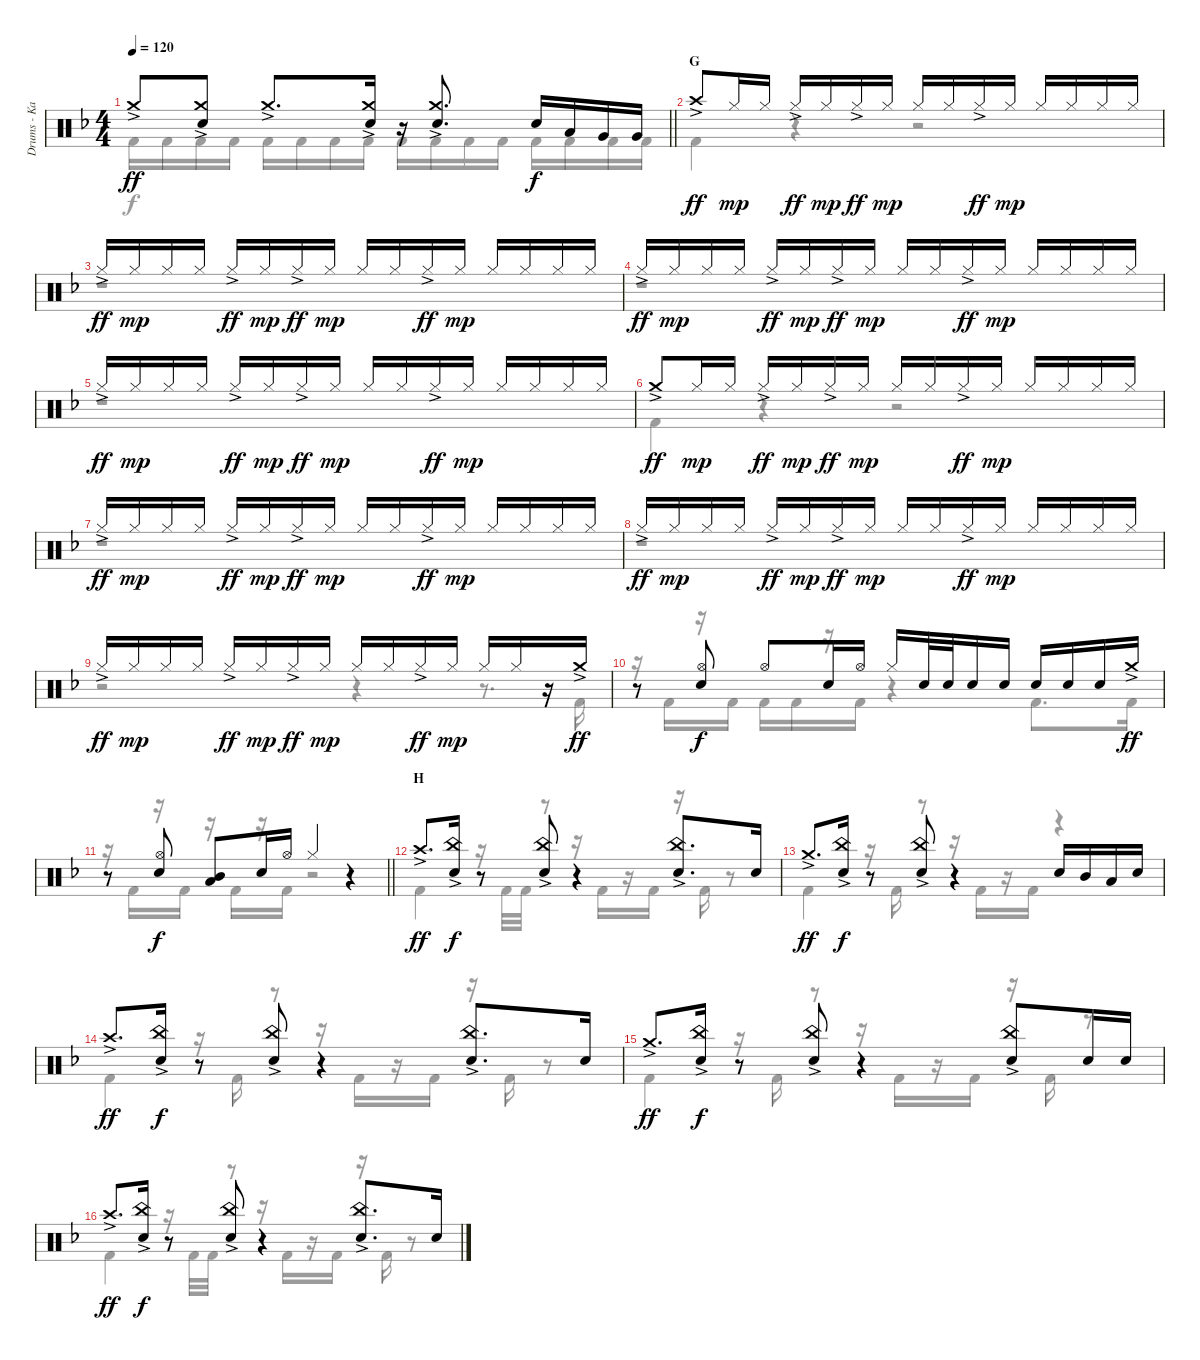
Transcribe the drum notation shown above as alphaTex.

\track ("Drums - Kai" "Drums - Ka") {instrument percussion}
\staff {score}
\articulation defaults
\voice
\ts (4 4)
\tempo 120
\clef neutral
\barLineRight lightlight
\ks f "Crash medium (hit)"{ac}.8{dy ff}
("Crash medium (hit)"{ac} "Electric Snare (hit)").8 "Crash medium (hit)"{ac}.8{d} ("Crash medium (hit)"{ac} "Electric Snare (hit)").16 r.16 ("Crash medium (hit)"{ac} "Electric Snare (hit)").8{d} "Electric Snare (hit)".16{dy f} "Low Tom (hit)".16 "Very Low Tom (hit)".16 "Very Low Tom (hit)".16 |
\section ("" "G")
"Crash high (hit)"{ac}.8{dy ff} "Hi-Hat (closed)".16{dy mp} "Hi-Hat (closed)".16 "Hi-Hat (closed)"{ac}.16{dy ff} "Hi-Hat (closed)".16{dy mp} "Hi-Hat (closed)"{ac}.16{dy ff} "Hi-Hat (closed)".16{dy mp} "Hi-Hat (closed)".16 "Hi-Hat (closed)".16 "Hi-Hat (closed)"{ac}.16{dy ff} "Hi-Hat (closed)".16{dy mp} "Hi-Hat (closed)".16 "Hi-Hat (closed)".16 "Hi-Hat (closed)".16 "Hi-Hat (closed)".16 |
"Hi-Hat (closed)"{ac}.16{dy ff} "Hi-Hat (closed)".16{dy mp} "Hi-Hat (closed)".16 "Hi-Hat (closed)".16 "Hi-Hat (closed)"{ac}.16{dy ff} "Hi-Hat (closed)".16{dy mp} "Hi-Hat (closed)"{ac}.16{dy ff} "Hi-Hat (closed)".16{dy mp} "Hi-Hat (closed)".16 "Hi-Hat (closed)".16 "Hi-Hat (closed)"{ac}.16{dy ff} "Hi-Hat (closed)".16{dy mp} "Hi-Hat (closed)".16 "Hi-Hat (closed)".16 "Hi-Hat (closed)".16 "Hi-Hat (closed)".16 |
"Hi-Hat (closed)"{ac}.16{dy ff} "Hi-Hat (closed)".16{dy mp} "Hi-Hat (closed)".16 "Hi-Hat (closed)".16 "Hi-Hat (closed)"{ac}.16{dy ff} "Hi-Hat (closed)".16{dy mp} "Hi-Hat (closed)"{ac}.16{dy ff} "Hi-Hat (closed)".16{dy mp} "Hi-Hat (closed)".16 "Hi-Hat (closed)".16 "Hi-Hat (closed)"{ac}.16{dy ff} "Hi-Hat (closed)".16{dy mp} "Hi-Hat (closed)".16 "Hi-Hat (closed)".16 "Hi-Hat (closed)".16 "Hi-Hat (closed)".16 |
"Hi-Hat (closed)"{ac}.16{dy ff} "Hi-Hat (closed)".16{dy mp} "Hi-Hat (closed)".16 "Hi-Hat (closed)".16 "Hi-Hat (closed)"{ac}.16{dy ff} "Hi-Hat (closed)".16{dy mp} "Hi-Hat (closed)"{ac}.16{dy ff} "Hi-Hat (closed)".16{dy mp} "Hi-Hat (closed)".16 "Hi-Hat (closed)".16 "Hi-Hat (closed)"{ac}.16{dy ff} "Hi-Hat (closed)".16{dy mp} "Hi-Hat (closed)".16 "Hi-Hat (closed)".16 "Hi-Hat (closed)".16 "Hi-Hat (closed)".16 |
"Crash medium (hit)"{ac}.8{dy ff} "Hi-Hat (closed)".16{dy mp} "Hi-Hat (closed)".16 "Hi-Hat (closed)"{ac}.16{dy ff} "Hi-Hat (closed)".16{dy mp} "Hi-Hat (closed)"{ac}.16{dy ff} "Hi-Hat (closed)".16{dy mp} "Hi-Hat (closed)".16 "Hi-Hat (closed)".16 "Hi-Hat (closed)"{ac}.16{dy ff} "Hi-Hat (closed)".16{dy mp} "Hi-Hat (closed)".16 "Hi-Hat (closed)".16 "Hi-Hat (closed)".16 "Hi-Hat (closed)".16 |
"Hi-Hat (closed)"{ac}.16{dy ff} "Hi-Hat (closed)".16{dy mp} "Hi-Hat (closed)".16 "Hi-Hat (closed)".16 "Hi-Hat (closed)"{ac}.16{dy ff} "Hi-Hat (closed)".16{dy mp} "Hi-Hat (closed)"{ac}.16{dy ff} "Hi-Hat (closed)".16{dy mp} "Hi-Hat (closed)".16 "Hi-Hat (closed)".16 "Hi-Hat (closed)"{ac}.16{dy ff} "Hi-Hat (closed)".16{dy mp} "Hi-Hat (closed)".16 "Hi-Hat (closed)".16 "Hi-Hat (closed)".16 "Hi-Hat (closed)".16 |
"Hi-Hat (closed)"{ac}.16{dy ff} "Hi-Hat (closed)".16{dy mp} "Hi-Hat (closed)".16 "Hi-Hat (closed)".16 "Hi-Hat (closed)"{ac}.16{dy ff} "Hi-Hat (closed)".16{dy mp} "Hi-Hat (closed)"{ac}.16{dy ff} "Hi-Hat (closed)".16{dy mp} "Hi-Hat (closed)".16 "Hi-Hat (closed)".16 "Hi-Hat (closed)"{ac}.16{dy ff} "Hi-Hat (closed)".16{dy mp} "Hi-Hat (closed)".16 "Hi-Hat (closed)".16 "Hi-Hat (closed)".16 "Hi-Hat (closed)".16 |
"Hi-Hat (closed)"{ac}.16{dy ff} "Hi-Hat (closed)".16{dy mp} "Hi-Hat (closed)".16 "Hi-Hat (closed)".16 "Hi-Hat (closed)"{ac}.16{dy ff} "Hi-Hat (closed)".16{dy mp} "Hi-Hat (closed)"{ac}.16{dy ff} "Hi-Hat (closed)".16{dy mp} "Hi-Hat (closed)".16 "Hi-Hat (closed)".16 "Hi-Hat (closed)"{ac}.16{dy ff} "Hi-Hat (closed)".16{dy mp} "Hi-Hat (closed)".16 "Hi-Hat (closed)".16 r.16 "Crash medium (hit)"{ac}.16{dy ff} |
r.8 ("Hi-Hat (open)" "Electric Snare (hit)").8{dy f} "Hi-Hat (open)".8 "Electric Snare (hit)".16 "Hi-Hat (open)".16 "Hi-Hat (closed)".16 "Electric Snare (hit)".32 "Electric Snare (hit)".32 "Electric Snare (hit)".16 "Electric Snare (hit)".16 "Electric Snare (hit)".16 "Electric Snare (hit)".16 "Electric Snare (hit)".16 "Crash medium (hit)"{ac}.16{dy ff} |
\barLineRight lightlight
r.8 ("Hi-Hat (open)" "Electric Snare (hit)").8{dy f} ("Mid Tom (hit)" "Low Tom (hit)").8 "Electric Snare (hit)".16 "Hi-Hat (open)".16 "Hi-Hat (closed)".4 r.4 |
\section ("" "H")
"Crash high (hit)"{ac}.8{d dy ff} ("China (hit)"{ac} "Electric Snare (hit)").16{dy f} r.8 ("China (hit)"{ac} "Electric Snare (hit)").8 r.4 ("China (hit)"{ac} "Electric Snare (hit)").8{d} "Electric Snare (hit)".16 |
"Crash medium (hit)"{ac}.8{d dy ff} ("China (hit)"{ac} "Electric Snare (hit)").16{dy f} r.8 ("China (hit)"{ac} "Electric Snare (hit)").8 r.4 "Electric Snare (hit)".16 "Mid Tom (hit)".16 "Low Tom (hit)".16 "Electric Snare (hit)".16 |
"Crash high (hit)"{ac}.8{d dy ff} ("China (hit)"{ac} "Electric Snare (hit)").16{dy f} r.8 ("China (hit)"{ac} "Electric Snare (hit)").8 r.4 ("China (hit)"{ac} "Electric Snare (hit)").8{d} "Electric Snare (hit)".16 |
"Crash medium (hit)"{ac}.8{d dy ff} ("China (hit)"{ac} "Electric Snare (hit)").16{dy f} r.8 ("China (hit)"{ac} "Electric Snare (hit)").8 r.4 ("China (hit)"{ac} "Electric Snare (hit)").8 "Electric Snare (hit)".16 "Electric Snare (hit)".16 |
"Crash high (hit)"{ac}.8{d dy ff} ("China (hit)"{ac} "Electric Snare (hit)").16{dy f} r.8 ("China (hit)"{ac} "Electric Snare (hit)").8 r.4 ("China (hit)"{ac} "Electric Snare (hit)").8{d} "Electric Snare (hit)".16
\voice
\clef neutral
\ottava regular
\simile none
\barLineRight lightlight
\ks f "Kick (hit) 2".16{dy f} "Kick (hit) 2".16 "Kick (hit) 2".16 "Kick (hit) 2".16 "Kick (hit) 2".16 "Kick (hit) 2".16 "Kick (hit) 2".16 "Kick (hit) 2".16 "Kick (hit) 2".16 "Kick (hit) 2".16 "Kick (hit) 2".16 "Kick (hit) 2".16 "Kick (hit) 2".16 "Kick (hit) 2".16 "Kick (hit) 2".16 "Kick (hit) 2".16
|
"Kick (hit) 2".4 r.4 r.2 |
r.1 |
r.1 |
r.1 |
"Kick (hit) 2".4 r.4 r.2 |
r.1 |
r.1 |
r.2 r.4 r.8{d} "Kick (hit) 2".16 |
r.16 "Kick (hit) 2".16 r.16 "Kick (hit) 2".16 "Kick (hit) 2".16 "Kick (hit) 2".16 r.16 "Kick (hit) 2".16 r.4 "Kick (hit) 2".8{d} "Kick (hit) 2".16 |
\barLineRight lightlight
r.16 "Kick (hit) 2".16 r.16 "Kick (hit) 2".16 r.16 "Kick (hit) 2".16 r.16 "Kick (hit) 2".16 r.2 |
"Kick (hit) 2".4 r.16 "Kick (hit) 2".32 "Kick (hit) 2".32 r.8 r.16 "Kick (hit) 2".16 r.16 "Kick (hit) 2".16 r.16 "Kick (hit) 2".16 r.8 |
"Kick (hit) 2".4 r.16 "Kick (hit) 2".16 r.8 r.16 "Kick (hit) 2".16 r.16 "Kick (hit) 2".16 r.4 |
"Kick (hit) 2".4 r.16 "Kick (hit) 2".16 r.8 r.16 "Kick (hit) 2".16 r.16 "Kick (hit) 2".16 r.16 "Kick (hit) 2".16 r.8 |
"Kick (hit) 2".4 r.16 "Kick (hit) 2".16 r.8 r.16 "Kick (hit) 2".16 r.16 "Kick (hit) 2".16 r.16 "Kick (hit) 2".16 r.8 |
"Kick (hit) 2".4 r.16 "Kick (hit) 2".32 "Kick (hit) 2".32 r.8 r.16 "Kick (hit) 2".16 r.16 "Kick (hit) 2".16 r.16 "Kick (hit) 2".16 r.8
